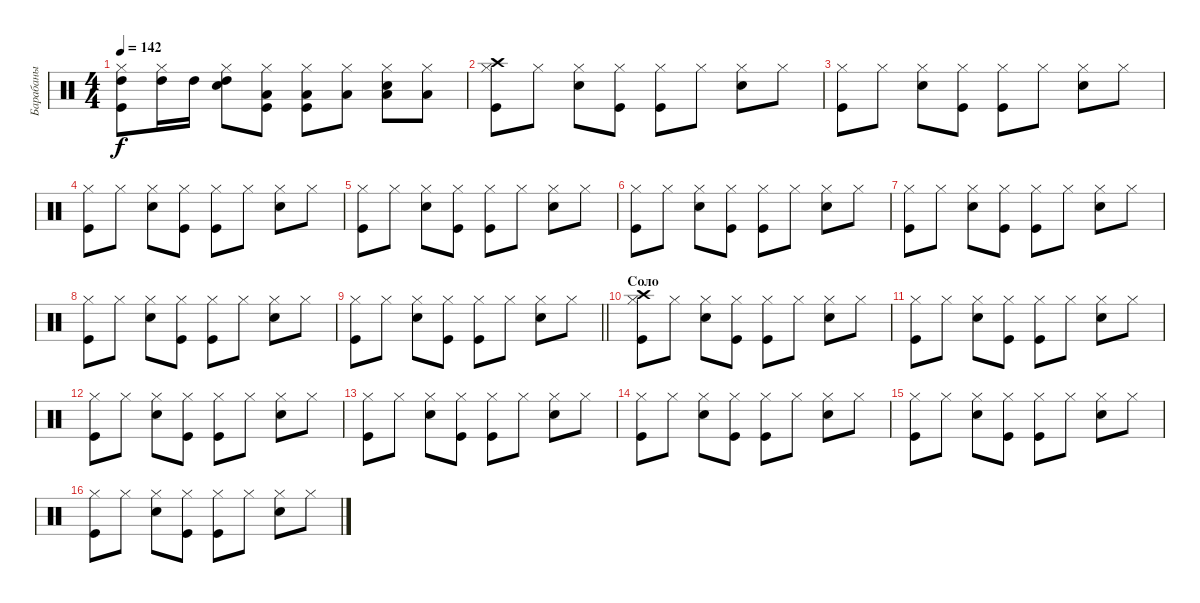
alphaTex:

\track ("Барабаны" "Барабаны") {instrument percussion}
\staff {score}
\articulation defaults
\ts (4 4)
\tempo 142
\clef neutral
\ks c
("Kick (hit)" "Hi-Hat (closed)" "High Tom (hit)").8{dy f} ("Hi-Hat (closed)" "High Tom (hit)").16 "High Tom (hit)".16 ("Snare (hit) 2" "Hi-Hat (closed)" "High Tom (hit)").8 ("Kick (hit)" "Hi-Hat (closed)" "Low Floor Tom (hit)").8 ("Kick (hit)" "Hi-Hat (closed)" "Low Floor Tom (hit)").8 ("Hi-Hat (closed)" "Low Floor Tom (hit)").8 ("Snare (hit) 2" "Hi-Hat (closed)" "Low Floor Tom (hit)").8 ("Hi-Hat (closed)" "Low Floor Tom (hit)").8 |
("Kick (hit)" "Hi-Hat (closed)" "Crash high (hit)").8 "Hi-Hat (closed)".8 ("Snare (hit) 2" "Hi-Hat (closed)").8 ("Kick (hit)" "Hi-Hat (closed)").8 ("Kick (hit)" "Hi-Hat (closed)").8 "Hi-Hat (closed)".8 ("Snare (hit) 2" "Hi-Hat (closed)").8 "Hi-Hat (closed)".8 |
("Kick (hit)" "Hi-Hat (closed)").8 "Hi-Hat (closed)".8 ("Snare (hit) 2" "Hi-Hat (closed)").8 ("Kick (hit)" "Hi-Hat (closed)").8 ("Kick (hit)" "Hi-Hat (closed)").8 "Hi-Hat (closed)".8 ("Snare (hit) 2" "Hi-Hat (closed)").8 "Hi-Hat (closed)".8 |
("Kick (hit)" "Hi-Hat (closed)").8 "Hi-Hat (closed)".8 ("Snare (hit) 2" "Hi-Hat (closed)").8 ("Kick (hit)" "Hi-Hat (closed)").8 ("Kick (hit)" "Hi-Hat (closed)").8 "Hi-Hat (closed)".8 ("Snare (hit) 2" "Hi-Hat (closed)").8 "Hi-Hat (closed)".8 |
("Kick (hit)" "Hi-Hat (closed)").8 "Hi-Hat (closed)".8 ("Snare (hit) 2" "Hi-Hat (closed)").8 ("Kick (hit)" "Hi-Hat (closed)").8 ("Kick (hit)" "Hi-Hat (closed)").8 "Hi-Hat (closed)".8 ("Snare (hit) 2" "Hi-Hat (closed)").8 "Hi-Hat (closed)".8 |
("Kick (hit)" "Hi-Hat (closed)").8 "Hi-Hat (closed)".8 ("Snare (hit) 2" "Hi-Hat (closed)").8 ("Kick (hit)" "Hi-Hat (closed)").8 ("Kick (hit)" "Hi-Hat (closed)").8 "Hi-Hat (closed)".8 ("Snare (hit) 2" "Hi-Hat (closed)").8 "Hi-Hat (closed)".8 |
("Kick (hit)" "Hi-Hat (closed)").8 "Hi-Hat (closed)".8 ("Snare (hit) 2" "Hi-Hat (closed)").8 ("Kick (hit)" "Hi-Hat (closed)").8 ("Kick (hit)" "Hi-Hat (closed)").8 "Hi-Hat (closed)".8 ("Snare (hit) 2" "Hi-Hat (closed)").8 "Hi-Hat (closed)".8 |
("Kick (hit)" "Hi-Hat (closed)").8 "Hi-Hat (closed)".8 ("Snare (hit) 2" "Hi-Hat (closed)").8 ("Kick (hit)" "Hi-Hat (closed)").8 ("Kick (hit)" "Hi-Hat (closed)").8 "Hi-Hat (closed)".8 ("Snare (hit) 2" "Hi-Hat (closed)").8 "Hi-Hat (closed)".8 |
\barLineRight lightlight
("Kick (hit)" "Hi-Hat (closed)").8 "Hi-Hat (closed)".8 ("Snare (hit) 2" "Hi-Hat (closed)").8 ("Kick (hit)" "Hi-Hat (closed)").8 ("Kick (hit)" "Hi-Hat (closed)").8 "Hi-Hat (closed)".8 ("Snare (hit) 2" "Hi-Hat (closed)").8 "Hi-Hat (closed)".8 |
\section ("" "Соло")
("Kick (hit)" "Hi-Hat (closed)" "Crash high (hit)").8 "Hi-Hat (closed)".8 ("Snare (hit) 2" "Hi-Hat (closed)").8 ("Kick (hit)" "Hi-Hat (closed)").8 ("Kick (hit)" "Hi-Hat (closed)").8 "Hi-Hat (closed)".8 ("Snare (hit) 2" "Hi-Hat (closed)").8 "Hi-Hat (closed)".8 |
("Kick (hit)" "Hi-Hat (closed)").8 "Hi-Hat (closed)".8 ("Snare (hit) 2" "Hi-Hat (closed)").8 ("Kick (hit)" "Hi-Hat (closed)").8 ("Kick (hit)" "Hi-Hat (closed)").8 "Hi-Hat (closed)".8 ("Snare (hit) 2" "Hi-Hat (closed)").8 "Hi-Hat (closed)".8 |
("Kick (hit)" "Hi-Hat (closed)").8 "Hi-Hat (closed)".8 ("Snare (hit) 2" "Hi-Hat (closed)").8 ("Kick (hit)" "Hi-Hat (closed)").8 ("Kick (hit)" "Hi-Hat (closed)").8 "Hi-Hat (closed)".8 ("Snare (hit) 2" "Hi-Hat (closed)").8 "Hi-Hat (closed)".8 |
("Kick (hit)" "Hi-Hat (closed)").8 "Hi-Hat (closed)".8 ("Snare (hit) 2" "Hi-Hat (closed)").8 ("Kick (hit)" "Hi-Hat (closed)").8 ("Kick (hit)" "Hi-Hat (closed)").8 "Hi-Hat (closed)".8 ("Snare (hit) 2" "Hi-Hat (closed)").8 "Hi-Hat (closed)".8 |
("Kick (hit)" "Hi-Hat (closed)").8 "Hi-Hat (closed)".8 ("Snare (hit) 2" "Hi-Hat (closed)").8 ("Kick (hit)" "Hi-Hat (closed)").8 ("Kick (hit)" "Hi-Hat (closed)").8 "Hi-Hat (closed)".8 ("Snare (hit) 2" "Hi-Hat (closed)").8 "Hi-Hat (closed)".8 |
("Kick (hit)" "Hi-Hat (closed)").8 "Hi-Hat (closed)".8 ("Snare (hit) 2" "Hi-Hat (closed)").8 ("Kick (hit)" "Hi-Hat (closed)").8 ("Kick (hit)" "Hi-Hat (closed)").8 "Hi-Hat (closed)".8 ("Snare (hit) 2" "Hi-Hat (closed)").8 "Hi-Hat (closed)".8 |
("Kick (hit)" "Hi-Hat (closed)").8 "Hi-Hat (closed)".8 ("Snare (hit) 2" "Hi-Hat (closed)").8 ("Kick (hit)" "Hi-Hat (closed)").8 ("Kick (hit)" "Hi-Hat (closed)").8 "Hi-Hat (closed)".8 ("Snare (hit) 2" "Hi-Hat (closed)").8 "Hi-Hat (closed)".8
